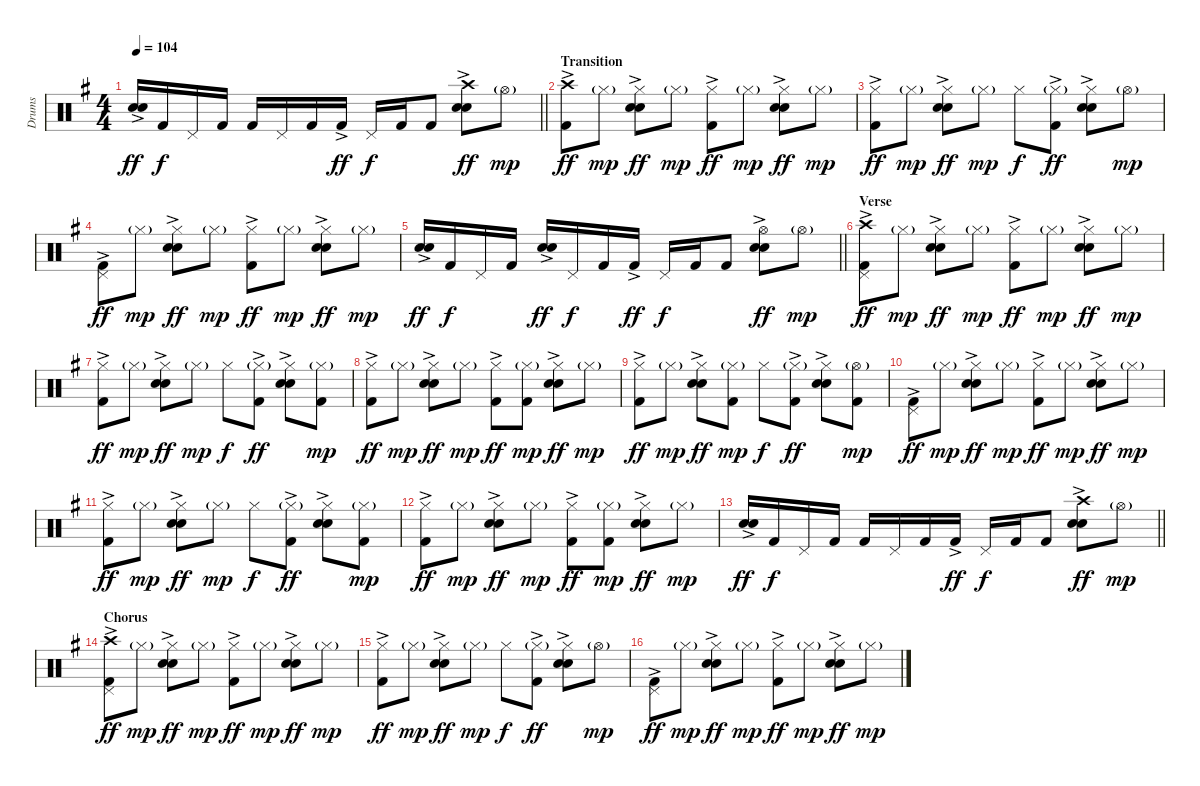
\track ("Drums" "Drums") {instrument percussion}
\staff {score}
\articulation defaults
\ts (4 4)
\tempo 104
\clef neutral
\barLineRight lightlight
\ks g
("Electric Snare (hit)"{ac} "Snare (hit) 2").16{dy ff} "Kick (hit) 2".16{dy f} "Pedal Hi-Hat (hit)".16 "Kick (hit) 2".16 "Kick (hit) 2".16 "Pedal Hi-Hat (hit)".16 "Kick (hit) 2".16 "Kick (hit) 2"{ac}.16{dy ff} "Pedal Hi-Hat (hit)".16{dy f} "Kick (hit) 2".16 "Kick (hit) 2".8 ("Crash high (hit)" "Electric Snare (hit)"{ac} "Snare (hit) 2").8{dy ff} "Hi-Hat (open)"{g}.8{dy mp} |
\section ("" "Transition")
("Crash high (hit)" "Kick (hit) 2"{ac}).8{dy ff} "Hi-Hat (closed)"{g}.8{dy mp} ("Hi-Hat (closed)" "Electric Snare (hit)"{ac} "Snare (hit) 2").8{dy ff} "Hi-Hat (closed)"{g}.8{dy mp} ("Hi-Hat (closed)" "Kick (hit) 2"{ac}).8{dy ff} "Hi-Hat (closed)"{g}.8{dy mp} ("Hi-Hat (closed)" "Electric Snare (hit)"{ac} "Snare (hit) 2").8{dy ff} "Hi-Hat (closed)"{g}.8{dy mp} |
("Hi-Hat (closed)" "Kick (hit) 2"{ac}).8{dy ff} "Hi-Hat (closed)"{g}.8{dy mp} ("Hi-Hat (closed)" "Electric Snare (hit)"{ac} "Snare (hit) 2").8{dy ff} "Hi-Hat (closed)"{g}.8{dy mp} "Hi-Hat (closed)".8{dy f} ("Hi-Hat (closed)"{g} "Kick (hit) 2"{ac}).8{dy ff} ("Hi-Hat (closed)" "Electric Snare (hit)"{ac} "Snare (hit) 2").8 "Hi-Hat (open)"{g}.8{dy mp} |
("Pedal Hi-Hat (hit)" "Kick (hit) 2"{ac}).8{dy ff} "Hi-Hat (closed)"{g}.8{dy mp} ("Hi-Hat (closed)" "Electric Snare (hit)"{ac} "Snare (hit) 2").8{dy ff} "Hi-Hat (closed)"{g}.8{dy mp} ("Hi-Hat (closed)" "Kick (hit) 2"{ac}).8{dy ff} "Hi-Hat (closed)"{g}.8{dy mp} ("Hi-Hat (closed)" "Electric Snare (hit)"{ac} "Snare (hit) 2").8{dy ff} "Hi-Hat (closed)"{g}.8{dy mp} |
\barLineRight lightlight
("Electric Snare (hit)"{ac} "Snare (hit) 2").16{dy ff} "Kick (hit) 2".16{dy f} "Pedal Hi-Hat (hit)".16 "Kick (hit) 2".16 ("Electric Snare (hit)"{ac} "Snare (hit) 2").16{dy ff} "Pedal Hi-Hat (hit)".16{dy f} "Kick (hit) 2".16 "Kick (hit) 2"{ac}.16{dy ff} "Pedal Hi-Hat (hit)".16{dy f} "Kick (hit) 2".16 "Kick (hit) 2".8 ("Hi-Hat (open)" "Electric Snare (hit)"{ac} "Snare (hit) 2").8{dy ff} "Hi-Hat (open)"{g}.8{dy mp} |
\section ("" "Verse")
("Pedal Hi-Hat (hit)" "Crash high (hit)" "Kick (hit) 2"{ac}).8{dy ff} "Hi-Hat (closed)"{g}.8{dy mp} ("Hi-Hat (closed)" "Electric Snare (hit)"{ac} "Snare (hit) 2").8{dy ff} "Hi-Hat (closed)"{g}.8{dy mp} ("Hi-Hat (closed)" "Kick (hit) 2"{ac}).8{dy ff} "Hi-Hat (closed)"{g}.8{dy mp} ("Hi-Hat (closed)" "Electric Snare (hit)"{ac} "Snare (hit) 2").8{dy ff} "Hi-Hat (closed)"{g}.8{dy mp} |
("Hi-Hat (closed)" "Kick (hit) 2"{ac}).8{dy ff} "Hi-Hat (closed)"{g}.8{dy mp} ("Hi-Hat (closed)" "Electric Snare (hit)"{ac} "Snare (hit) 2").8{dy ff} "Hi-Hat (closed)"{g}.8{dy mp} "Hi-Hat (closed)".8{dy f} ("Hi-Hat (closed)"{g} "Kick (hit) 2"{ac}).8{dy ff} ("Hi-Hat (closed)" "Electric Snare (hit)"{ac} "Snare (hit) 2").8 ("Hi-Hat (closed)"{g} "Kick (hit) 2").8{dy mp} |
("Hi-Hat (closed)" "Kick (hit) 2"{ac}).8{dy ff} "Hi-Hat (closed)"{g}.8{dy mp} ("Hi-Hat (closed)" "Electric Snare (hit)"{ac} "Snare (hit) 2").8{dy ff} "Hi-Hat (closed)"{g}.8{dy mp} ("Hi-Hat (closed)" "Kick (hit) 2"{ac}).8{dy ff} ("Hi-Hat (closed)"{g} "Kick (hit) 2").8{dy mp} ("Hi-Hat (closed)" "Electric Snare (hit)"{ac} "Snare (hit) 2").8{dy ff} "Hi-Hat (closed)"{g}.8{dy mp} |
("Hi-Hat (closed)" "Kick (hit) 2"{ac}).8{dy ff} "Hi-Hat (closed)"{g}.8{dy mp} ("Hi-Hat (closed)" "Electric Snare (hit)"{ac} "Snare (hit) 2").8{dy ff} ("Hi-Hat (closed)"{g} "Kick (hit) 2").8{dy mp} "Hi-Hat (closed)".8{dy f} ("Hi-Hat (closed)"{g} "Kick (hit) 2"{ac}).8{dy ff} ("Hi-Hat (closed)" "Electric Snare (hit)"{ac} "Snare (hit) 2").8 ("Hi-Hat (open)"{g} "Kick (hit) 2").8{dy mp} |
("Pedal Hi-Hat (hit)" "Kick (hit) 2"{ac}).8{dy ff} "Hi-Hat (closed)"{g}.8{dy mp} ("Hi-Hat (closed)" "Electric Snare (hit)"{ac} "Snare (hit) 2").8{dy ff} "Hi-Hat (closed)"{g}.8{dy mp} ("Hi-Hat (closed)" "Kick (hit) 2"{ac}).8{dy ff} "Hi-Hat (closed)"{g}.8{dy mp} ("Hi-Hat (closed)" "Electric Snare (hit)"{ac} "Snare (hit) 2").8{dy ff} "Hi-Hat (closed)"{g}.8{dy mp} |
("Hi-Hat (closed)" "Kick (hit) 2"{ac}).8{dy ff} "Hi-Hat (closed)"{g}.8{dy mp} ("Hi-Hat (closed)" "Electric Snare (hit)"{ac} "Snare (hit) 2").8{dy ff} "Hi-Hat (closed)"{g}.8{dy mp} "Hi-Hat (closed)".8{dy f} ("Hi-Hat (closed)"{g} "Kick (hit) 2"{ac}).8{dy ff} ("Hi-Hat (closed)" "Electric Snare (hit)"{ac} "Snare (hit) 2").8 ("Hi-Hat (closed)"{g} "Kick (hit) 2").8{dy mp} |
("Hi-Hat (closed)" "Kick (hit) 2"{ac}).8{dy ff} "Hi-Hat (closed)"{g}.8{dy mp} ("Hi-Hat (closed)" "Electric Snare (hit)"{ac} "Snare (hit) 2").8{dy ff} "Hi-Hat (closed)"{g}.8{dy mp} ("Hi-Hat (closed)" "Kick (hit) 2"{ac}).8{dy ff} ("Hi-Hat (closed)"{g} "Kick (hit) 2").8{dy mp} ("Hi-Hat (closed)" "Electric Snare (hit)"{ac} "Snare (hit) 2").8{dy ff} "Hi-Hat (closed)"{g}.8{dy mp} |
\barLineRight lightlight
("Electric Snare (hit)"{ac} "Snare (hit) 2").16{dy ff} "Kick (hit) 2".16{dy f} "Pedal Hi-Hat (hit)".16 "Kick (hit) 2".16 "Kick (hit) 2".16 "Pedal Hi-Hat (hit)".16 "Kick (hit) 2".16 "Kick (hit) 2"{ac}.16{dy ff} "Pedal Hi-Hat (hit)".16{dy f} "Kick (hit) 2".16 "Kick (hit) 2".8 ("Crash high (hit)" "Electric Snare (hit)"{ac} "Snare (hit) 2").8{dy ff} "Hi-Hat (open)"{g}.8{dy mp} |
\section ("" "Chorus")
("Pedal Hi-Hat (hit)" "Crash high (hit)" "Kick (hit) 2"{ac}).8{dy ff} "Hi-Hat (closed)"{g}.8{dy mp} ("Hi-Hat (closed)" "Electric Snare (hit)"{ac} "Snare (hit) 2").8{dy ff} "Hi-Hat (closed)"{g}.8{dy mp} ("Hi-Hat (closed)" "Kick (hit) 2"{ac}).8{dy ff} "Hi-Hat (closed)"{g}.8{dy mp} ("Hi-Hat (closed)" "Electric Snare (hit)"{ac} "Snare (hit) 2").8{dy ff} "Hi-Hat (closed)"{g}.8{dy mp} |
("Hi-Hat (closed)" "Kick (hit) 2"{ac}).8{dy ff} "Hi-Hat (closed)"{g}.8{dy mp} ("Hi-Hat (closed)" "Electric Snare (hit)"{ac} "Snare (hit) 2").8{dy ff} "Hi-Hat (closed)"{g}.8{dy mp} "Hi-Hat (closed)".8{dy f} ("Hi-Hat (closed)"{g} "Kick (hit) 2"{ac}).8{dy ff} ("Hi-Hat (closed)" "Electric Snare (hit)"{ac} "Snare (hit) 2").8 "Hi-Hat (open)"{g}.8{dy mp} |
("Pedal Hi-Hat (hit)" "Kick (hit) 2"{ac}).8{dy ff} "Hi-Hat (closed)"{g}.8{dy mp} ("Hi-Hat (closed)" "Electric Snare (hit)"{ac} "Snare (hit) 2").8{dy ff} "Hi-Hat (closed)"{g}.8{dy mp} ("Hi-Hat (closed)" "Kick (hit) 2"{ac}).8{dy ff} "Hi-Hat (closed)"{g}.8{dy mp} ("Hi-Hat (closed)" "Electric Snare (hit)"{ac} "Snare (hit) 2").8{dy ff} "Hi-Hat (closed)"{g}.8{dy mp}
